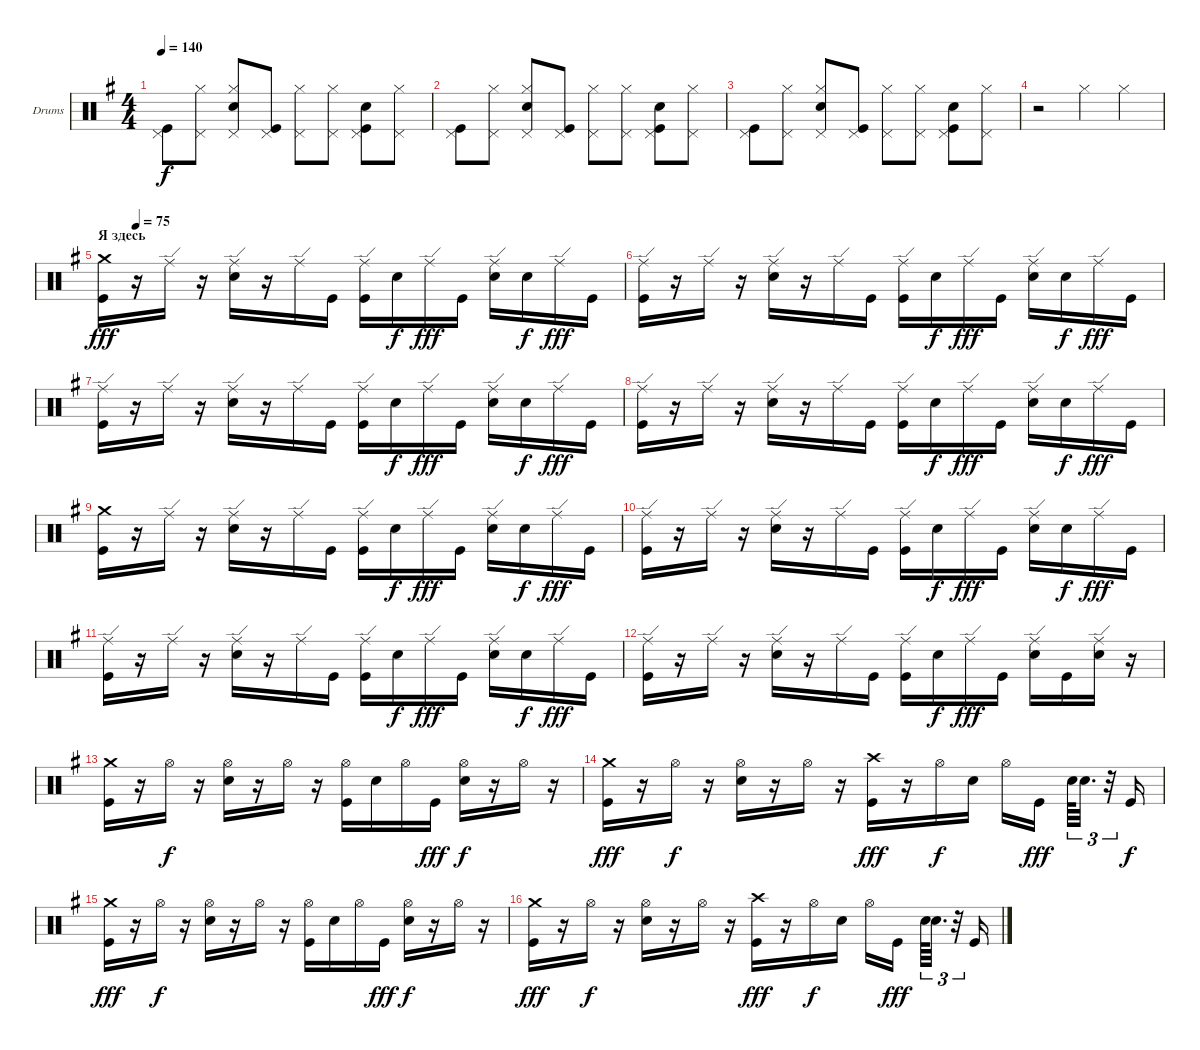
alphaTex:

\bracketExtendMode groupsimilarinstruments
\firstSystemTrackNameOrientation horizontal
\otherSystemsTrackNameOrientation horizontal
\track ("Александр Манякин" "Drums") {instrument percussion}
\staff {score}
\articulation defaults
\ts (4 4)
\tempo 140
\clef neutral
\ks eminor
("Pedal Hi-Hat (hit)" "Kick (hit)").8{dy f} ("Pedal Hi-Hat (hit)" "Hi-Hat (closed)").8 ("Pedal Hi-Hat (hit)" "Hi-Hat (closed)" "Snare (hit) 2").8 ("Pedal Hi-Hat (hit)" "Kick (hit)").8 ("Pedal Hi-Hat (hit)" "Hi-Hat (closed)").8 ("Pedal Hi-Hat (hit)" "Hi-Hat (closed)").8 ("Pedal Hi-Hat (hit)" "Snare (hit) 2" "Kick (hit)").8 ("Pedal Hi-Hat (hit)" "Hi-Hat (closed)").8 |
("Pedal Hi-Hat (hit)" "Kick (hit)").8 ("Pedal Hi-Hat (hit)" "Hi-Hat (closed)").8 ("Pedal Hi-Hat (hit)" "Hi-Hat (closed)" "Snare (hit) 2").8 ("Pedal Hi-Hat (hit)" "Kick (hit)").8 ("Pedal Hi-Hat (hit)" "Hi-Hat (closed)").8 ("Pedal Hi-Hat (hit)" "Hi-Hat (closed)").8 ("Pedal Hi-Hat (hit)" "Snare (hit) 2" "Kick (hit)").8 ("Pedal Hi-Hat (hit)" "Hi-Hat (closed)").8 |
("Pedal Hi-Hat (hit)" "Kick (hit)").8 ("Pedal Hi-Hat (hit)" "Hi-Hat (closed)").8 ("Pedal Hi-Hat (hit)" "Hi-Hat (closed)" "Snare (hit) 2").8 ("Pedal Hi-Hat (hit)" "Kick (hit)").8 ("Pedal Hi-Hat (hit)" "Hi-Hat (closed)").8 ("Pedal Hi-Hat (hit)" "Hi-Hat (closed)").8 ("Pedal Hi-Hat (hit)" "Snare (hit) 2" "Kick (hit)").8 ("Pedal Hi-Hat (hit)" "Hi-Hat (closed)").8 |
r.2 "Hi-Hat (closed)".4 "Hi-Hat (closed)".4 |
\section ("" "Я здесь")
\tempo (75 0.0625)
("Crash medium (hit)" "Kick (hit)").16{dy fff} r.16 "Ride (edge)".16 r.16 ("Ride (edge)" "Snare (hit) 2").16 r.16 "Ride (edge)".16 "Kick (hit)".16 ("Ride (edge)" "Kick (hit)").16 "Snare (hit) 2".16{dy f} "Ride (edge)".16{dy fff} "Kick (hit)".16 ("Ride (edge)" "Snare (hit) 2").16 "Snare (hit) 2".16{dy f} "Ride (edge)".16{dy fff} "Kick (hit)".16 |
("Ride (edge)" "Kick (hit)").16 r.16 "Ride (edge)".16 r.16 ("Ride (edge)" "Snare (hit) 2").16 r.16 "Ride (edge)".16 "Kick (hit)".16 ("Ride (edge)" "Kick (hit)").16 "Snare (hit) 2".16{dy f} "Ride (edge)".16{dy fff} "Kick (hit)".16 ("Ride (edge)" "Snare (hit) 2").16 "Snare (hit) 2".16{dy f} "Ride (edge)".16{dy fff} "Kick (hit)".16 |
("Ride (edge)" "Kick (hit)").16 r.16 "Ride (edge)".16 r.16 ("Ride (edge)" "Snare (hit) 2").16 r.16 "Ride (edge)".16 "Kick (hit)".16 ("Ride (edge)" "Kick (hit)").16 "Snare (hit) 2".16{dy f} "Ride (edge)".16{dy fff} "Kick (hit)".16 ("Ride (edge)" "Snare (hit) 2").16 "Snare (hit) 2".16{dy f} "Ride (edge)".16{dy fff} "Kick (hit)".16 |
("Ride (edge)" "Kick (hit)").16 r.16 "Ride (edge)".16 r.16 ("Ride (edge)" "Snare (hit) 2").16 r.16 "Ride (edge)".16 "Kick (hit)".16 ("Ride (edge)" "Kick (hit)").16 "Snare (hit) 2".16{dy f} "Ride (edge)".16{dy fff} "Kick (hit)".16 ("Ride (edge)" "Snare (hit) 2").16 "Snare (hit) 2".16{dy f} "Ride (edge)".16{dy fff} "Kick (hit)".16 |
("Crash medium (hit)" "Kick (hit)").16 r.16 "Ride (edge)".16 r.16 ("Ride (edge)" "Snare (hit) 2").16 r.16 "Ride (edge)".16 "Kick (hit)".16 ("Ride (edge)" "Kick (hit)").16 "Snare (hit) 2".16{dy f} "Ride (edge)".16{dy fff} "Kick (hit)".16 ("Ride (edge)" "Snare (hit) 2").16 "Snare (hit) 2".16{dy f} "Ride (edge)".16{dy fff} "Kick (hit)".16 |
("Ride (edge)" "Kick (hit)").16 r.16 "Ride (edge)".16 r.16 ("Ride (edge)" "Snare (hit) 2").16 r.16 "Ride (edge)".16 "Kick (hit)".16 ("Ride (edge)" "Kick (hit)").16 "Snare (hit) 2".16{dy f} "Ride (edge)".16{dy fff} "Kick (hit)".16 ("Ride (edge)" "Snare (hit) 2").16 "Snare (hit) 2".16{dy f} "Ride (edge)".16{dy fff} "Kick (hit)".16 |
("Ride (edge)" "Kick (hit)").16 r.16 "Ride (edge)".16 r.16 ("Ride (edge)" "Snare (hit) 2").16 r.16 "Ride (edge)".16 "Kick (hit)".16 ("Ride (edge)" "Kick (hit)").16 "Snare (hit) 2".16{dy f} "Ride (edge)".16{dy fff} "Kick (hit)".16 ("Ride (edge)" "Snare (hit) 2").16 "Snare (hit) 2".16{dy f} "Ride (edge)".16{dy fff} "Kick (hit)".16 |
("Ride (edge)" "Kick (hit)").16 r.16 "Ride (edge)".16 r.16 ("Ride (edge)" "Snare (hit) 2").16 r.16 "Ride (edge)".16 "Kick (hit)".16 ("Ride (edge)" "Kick (hit)").16 "Snare (hit) 2".16{dy f} "Ride (edge)".16{dy fff} "Kick (hit)".16 ("Ride (edge)" "Snare (hit) 2").16 "Kick (hit)".16 ("Ride (edge)" "Snare (hit) 2").16 r.16 |
("Crash medium (hit)" "Kick (hit)").16 r.16 "Hi-Hat (open)".16{dy f} r.16 ("Hi-Hat (open)" "Snare (hit) 2").16 r.16 "Hi-Hat (open)".16 r.16 ("Hi-Hat (open)" "Kick (hit)").16 "Snare (hit) 2".16 "Hi-Hat (open)".16 "Kick (hit)".16{dy fff} ("Hi-Hat (open)" "Snare (hit) 2").16{dy f} r.16 "Hi-Hat (open)".16 r.16 |
("Crash medium (hit)" "Kick (hit)").16{dy fff} r.16 "Hi-Hat (open)".16{dy f} r.16 ("Hi-Hat (open)" "Snare (hit) 2").16 r.16 "Hi-Hat (open)".16 r.16 ("Crash high (hit)" "Kick (hit)").16{dy fff} r.16 "Hi-Hat (open)".16{dy f} "Snare (hit) 2".16 "Hi-Hat (open)".16 "Kick (hit)".16{dy fff} "Snare (hit) 2".64{tu (3 2)} "Snare (hit) 2".32{d tu (3 2)} r.32{tu (3 2)} "Kick (hit)".16{dy f} |
("Crash medium (hit)" "Kick (hit)").16{dy fff} r.16 "Hi-Hat (open)".16{dy f} r.16 ("Hi-Hat (open)" "Snare (hit) 2").16 r.16 "Hi-Hat (open)".16 r.16 ("Hi-Hat (open)" "Kick (hit)").16 "Snare (hit) 2".16 "Hi-Hat (open)".16 "Kick (hit)".16{dy fff} ("Hi-Hat (open)" "Snare (hit) 2").16{dy f} r.16 "Hi-Hat (open)".16 r.16 |
("Crash medium (hit)" "Kick (hit)").16{dy fff} r.16 "Hi-Hat (open)".16{dy f} r.16 ("Hi-Hat (open)" "Snare (hit) 2").16 r.16 "Hi-Hat (open)".16 r.16 ("Crash high (hit)" "Kick (hit)").16{dy fff} r.16 "Hi-Hat (open)".16{dy f} "Snare (hit) 2".16 "Hi-Hat (open)".16 "Kick (hit)".16{dy fff} "Snare (hit) 2".64{tu (3 2)} "Snare (hit) 2".32{d tu (3 2)} r.32{tu (3 2)} "Kick (hit)".16
